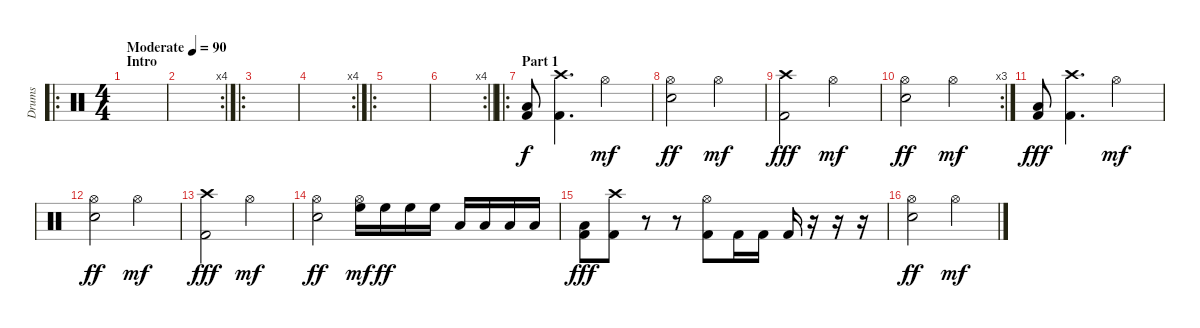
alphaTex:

\track ("Drums" "Drums") {instrument percussion}
\staff {score}
\articulation defaults
\ro
\ts (4 4)
\section ("" "Intro")
\tempo (90 "Moderate")
\clef neutral
\ks c
|
\rc 4
|
\ro
|
\rc 4
|
\ro
|
\rc 4
\barLineRight lightlight
|
\ro
\section ("" "Part 1")
("Low Floor Tom (hit)" "Kick (hit) 2").8 ("Crash high (hit)" "Kick (hit) 2").4{d} "Hi-Hat (open)".2{dy mf} |
("Hi-Hat (open)" "Electric Snare (hit)").2{dy ff} "Hi-Hat (open)".2{dy mf} |
("Crash high (hit)" "Kick (hit) 2").2{dy fff} "Hi-Hat (open)".2{dy mf} |
\rc 3
("Hi-Hat (open)" "Electric Snare (hit)").2{dy ff} "Hi-Hat (open)".2{dy mf} |
("Low Floor Tom (hit)" "Kick (hit) 2").8{dy fff} ("Crash high (hit)" "Kick (hit) 2").4{d} "Hi-Hat (open)".2{dy mf} |
("Hi-Hat (open)" "Electric Snare (hit)").2{dy ff} "Hi-Hat (open)".2{dy mf} |
("Crash high (hit)" "Kick (hit) 2").2{dy fff} "Hi-Hat (open)".2{dy mf} |
("Hi-Hat (open)" "Electric Snare (hit)").2{dy ff} ("High Floor Tom (hit)" "Hi-Hat (open)").16{dy mf} "High Floor Tom (hit)".16{dy ff} "High Floor Tom (hit)".16 "High Floor Tom (hit)".16 "Low Tom (hit)".16 "Low Tom (hit)".16 "Low Tom (hit)".16 "Low Tom (hit)".16 |
("Low Floor Tom (hit)" "Kick (hit) 2").8{dy fff} ("Crash high (hit)" "Kick (hit) 2").8 r.8 r.8 ("Hi-Hat (open)" "Kick (hit) 2").8 "Kick (hit) 2".16 "Kick (hit) 2".16 "Kick (hit) 2".16 r.16 r.16 r.16 |
("Hi-Hat (open)" "Electric Snare (hit)").2{dy ff} "Hi-Hat (open)".2{dy mf}
